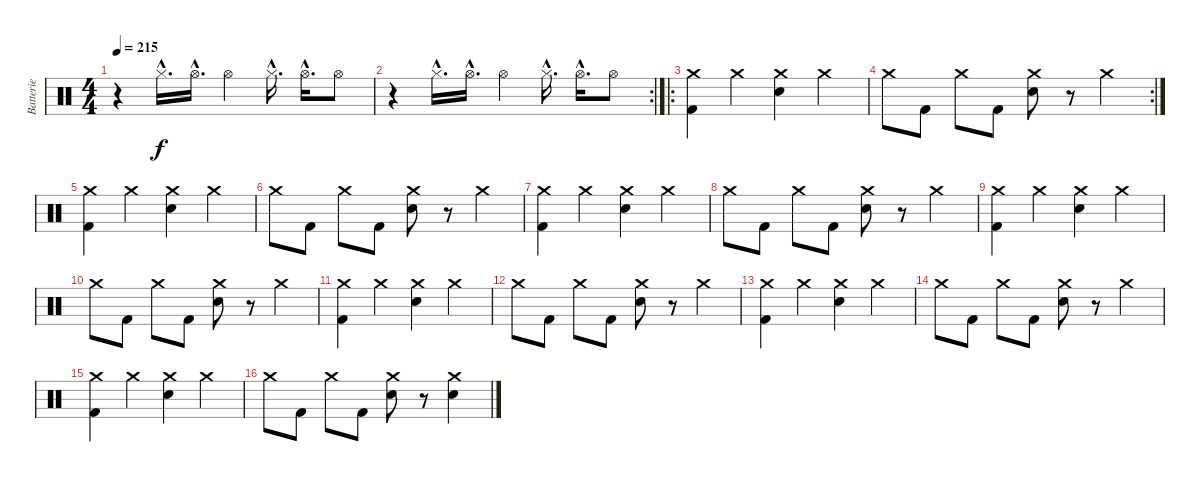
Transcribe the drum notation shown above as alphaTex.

\track ("Batterie" "Batterie") {instrument percussion}
\staff {score}
\articulation defaults
\ts (4 4)
\tempo 215
\clef neutral
\ks c
r.4{dy f} "Hi-Hat (closed)"{hac}.16{d} "Hi-Hat (open)"{hac}.16{d} "Hi-Hat (open)".4 "Hi-Hat (closed)"{hac}.16{d} "Hi-Hat (open)"{hac}.16{d} "Hi-Hat (open)".8 |
\rc 2
r.4 "Hi-Hat (closed)"{hac}.16{d} "Hi-Hat (open)"{hac}.16{d} "Hi-Hat (open)".4 "Hi-Hat (closed)"{hac}.16{d} "Hi-Hat (open)"{hac}.16{d} "Hi-Hat (open)".8 |
\ro
("Crash medium (hit)" "Kick (hit) 2").4 "Crash medium (hit)".4 ("Crash medium (hit)" "Electric Snare (hit)").4 "Crash medium (hit)".4 |
\rc 2 "Crash medium (hit)".8 "Kick (hit) 2".8 "Crash medium (hit)".8 "Kick (hit) 2".8
("Crash medium (hit)" "Electric Snare (hit)").8 r.8 "Crash medium (hit)".4 |
("Crash medium (hit)" "Kick (hit) 2").4 "Crash medium (hit)".4 ("Crash medium (hit)" "Electric Snare (hit)").4 "Crash medium (hit)".4 |
"Crash medium (hit)".8 "Kick (hit) 2".8 "Crash medium (hit)".8 "Kick (hit) 2".8 ("Crash medium (hit)" "Electric Snare (hit)").8 r.8 "Crash medium (hit)".4 |
("Crash medium (hit)" "Kick (hit) 2").4 "Crash medium (hit)".4 ("Crash medium (hit)" "Electric Snare (hit)").4 "Crash medium (hit)".4 |
"Crash medium (hit)".8 "Kick (hit) 2".8 "Crash medium (hit)".8 "Kick (hit) 2".8 ("Crash medium (hit)" "Electric Snare (hit)").8 r.8 "Crash medium (hit)".4 |
("Crash medium (hit)" "Kick (hit) 2").4 "Crash medium (hit)".4 ("Crash medium (hit)" "Electric Snare (hit)").4 "Crash medium (hit)".4 |
"Crash medium (hit)".8 "Kick (hit) 2".8 "Crash medium (hit)".8 "Kick (hit) 2".8 ("Crash medium (hit)" "Electric Snare (hit)").8 r.8 "Crash medium (hit)".4 |
("Crash medium (hit)" "Kick (hit) 2").4 "Crash medium (hit)".4 ("Crash medium (hit)" "Electric Snare (hit)").4 "Crash medium (hit)".4 |
"Crash medium (hit)".8 "Kick (hit) 2".8 "Crash medium (hit)".8 "Kick (hit) 2".8 ("Crash medium (hit)" "Electric Snare (hit)").8 r.8 "Crash medium (hit)".4 |
("Crash medium (hit)" "Kick (hit) 2").4 "Crash medium (hit)".4 ("Crash medium (hit)" "Electric Snare (hit)").4 "Crash medium (hit)".4 |
"Crash medium (hit)".8 "Kick (hit) 2".8 "Crash medium (hit)".8 "Kick (hit) 2".8 ("Crash medium (hit)" "Electric Snare (hit)").8 r.8 "Crash medium (hit)".4 |
("Crash medium (hit)" "Kick (hit) 2").4 "Crash medium (hit)".4 ("Crash medium (hit)" "Electric Snare (hit)").4 "Crash medium (hit)".4 |
"Crash medium (hit)".8 "Kick (hit) 2".8 "Crash medium (hit)".8 "Kick (hit) 2".8 ("Crash medium (hit)" "Electric Snare (hit)").8 r.8 ("Crash medium (hit)" "Electric Snare (hit)").4
